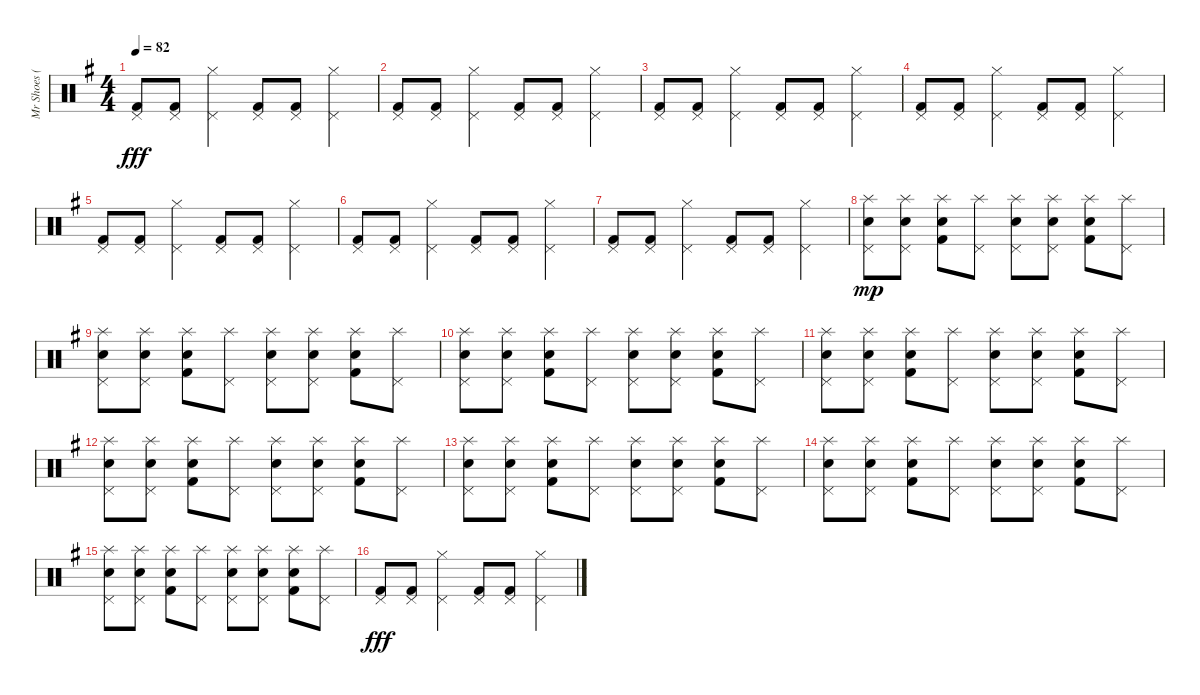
\track ("Mr Shoes (batterie)" "Mr Shoes (") {instrument percussion}
\staff {score}
\articulation defaults
\ts (4 4)
\tempo 82
\clef neutral
\ks g
("Kick (hit) 2" "Pedal Hi-Hat (hit)").8{dy fff} ("Kick (hit) 2" "Pedal Hi-Hat (hit)").8 ("Pedal Hi-Hat (hit)" "Hi-Hat (closed)").4 ("Kick (hit) 2" "Pedal Hi-Hat (hit)").8 ("Kick (hit) 2" "Pedal Hi-Hat (hit)").8 ("Pedal Hi-Hat (hit)" "Hi-Hat (closed)").4 |
("Kick (hit) 2" "Pedal Hi-Hat (hit)").8 ("Kick (hit) 2" "Pedal Hi-Hat (hit)").8 ("Pedal Hi-Hat (hit)" "Hi-Hat (closed)").4 ("Kick (hit) 2" "Pedal Hi-Hat (hit)").8 ("Kick (hit) 2" "Pedal Hi-Hat (hit)").8 ("Pedal Hi-Hat (hit)" "Hi-Hat (closed)").4 |
("Kick (hit) 2" "Pedal Hi-Hat (hit)").8 ("Kick (hit) 2" "Pedal Hi-Hat (hit)").8 ("Pedal Hi-Hat (hit)" "Hi-Hat (closed)").4 ("Kick (hit) 2" "Pedal Hi-Hat (hit)").8 ("Kick (hit) 2" "Pedal Hi-Hat (hit)").8 ("Pedal Hi-Hat (hit)" "Hi-Hat (closed)").4 |
("Kick (hit) 2" "Pedal Hi-Hat (hit)").8 ("Kick (hit) 2" "Pedal Hi-Hat (hit)").8 ("Pedal Hi-Hat (hit)" "Hi-Hat (closed)").4 ("Kick (hit) 2" "Pedal Hi-Hat (hit)").8 ("Kick (hit) 2" "Pedal Hi-Hat (hit)").8 ("Pedal Hi-Hat (hit)" "Hi-Hat (closed)").4 |
("Kick (hit) 2" "Pedal Hi-Hat (hit)").8 ("Kick (hit) 2" "Pedal Hi-Hat (hit)").8 ("Pedal Hi-Hat (hit)" "Hi-Hat (closed)").4 ("Kick (hit) 2" "Pedal Hi-Hat (hit)").8 ("Kick (hit) 2" "Pedal Hi-Hat (hit)").8 ("Pedal Hi-Hat (hit)" "Hi-Hat (closed)").4 |
("Kick (hit) 2" "Pedal Hi-Hat (hit)").8 ("Kick (hit) 2" "Pedal Hi-Hat (hit)").8 ("Pedal Hi-Hat (hit)" "Hi-Hat (closed)").4 ("Kick (hit) 2" "Pedal Hi-Hat (hit)").8 ("Kick (hit) 2" "Pedal Hi-Hat (hit)").8 ("Pedal Hi-Hat (hit)" "Hi-Hat (closed)").4 |
("Kick (hit) 2" "Pedal Hi-Hat (hit)").8 ("Kick (hit) 2" "Pedal Hi-Hat (hit)").8 ("Pedal Hi-Hat (hit)" "Hi-Hat (closed)").4 ("Kick (hit) 2" "Pedal Hi-Hat (hit)").8 ("Kick (hit) 2" "Pedal Hi-Hat (hit)").8 ("Pedal Hi-Hat (hit)" "Hi-Hat (closed)").4 |
("Electric Snare (hit)" "Pedal Hi-Hat (hit)" "Splash (hit)").8{dy mp} ("Electric Snare (hit)" "Pedal Hi-Hat (hit)" "Splash (hit)").8 ("Kick (hit) 2" "Snare (hit) 2" "Splash (hit)").8 ("Pedal Hi-Hat (hit)" "Splash (hit)").8 ("Electric Snare (hit)" "Pedal Hi-Hat (hit)" "Splash (hit)").8 ("Electric Snare (hit)" "Pedal Hi-Hat (hit)" "Splash (hit)").8 ("Kick (hit) 2" "Snare (hit) 2" "Splash (hit)").8 ("Pedal Hi-Hat (hit)" "Splash (hit)").8 |
("Electric Snare (hit)" "Pedal Hi-Hat (hit)" "Splash (hit)").8 ("Electric Snare (hit)" "Pedal Hi-Hat (hit)" "Splash (hit)").8 ("Kick (hit) 2" "Snare (hit) 2" "Splash (hit)").8 ("Pedal Hi-Hat (hit)" "Splash (hit)").8 ("Electric Snare (hit)" "Pedal Hi-Hat (hit)" "Splash (hit)").8 ("Electric Snare (hit)" "Pedal Hi-Hat (hit)" "Splash (hit)").8 ("Kick (hit) 2" "Snare (hit) 2" "Splash (hit)").8 ("Pedal Hi-Hat (hit)" "Splash (hit)").8 |
("Electric Snare (hit)" "Pedal Hi-Hat (hit)" "Splash (hit)").8 ("Electric Snare (hit)" "Pedal Hi-Hat (hit)" "Splash (hit)").8 ("Kick (hit) 2" "Snare (hit) 2" "Splash (hit)").8 ("Pedal Hi-Hat (hit)" "Splash (hit)").8 ("Electric Snare (hit)" "Pedal Hi-Hat (hit)" "Splash (hit)").8 ("Electric Snare (hit)" "Pedal Hi-Hat (hit)" "Splash (hit)").8 ("Kick (hit) 2" "Snare (hit) 2" "Splash (hit)").8 ("Pedal Hi-Hat (hit)" "Splash (hit)").8 |
("Electric Snare (hit)" "Pedal Hi-Hat (hit)" "Splash (hit)").8 ("Electric Snare (hit)" "Pedal Hi-Hat (hit)" "Splash (hit)").8 ("Kick (hit) 2" "Snare (hit) 2" "Splash (hit)").8 ("Pedal Hi-Hat (hit)" "Splash (hit)").8 ("Electric Snare (hit)" "Pedal Hi-Hat (hit)" "Splash (hit)").8 ("Electric Snare (hit)" "Pedal Hi-Hat (hit)" "Splash (hit)").8 ("Kick (hit) 2" "Snare (hit) 2" "Splash (hit)").8 ("Pedal Hi-Hat (hit)" "Splash (hit)").8 |
("Electric Snare (hit)" "Pedal Hi-Hat (hit)" "Splash (hit)").8 ("Electric Snare (hit)" "Pedal Hi-Hat (hit)" "Splash (hit)").8 ("Kick (hit) 2" "Snare (hit) 2" "Splash (hit)").8 ("Pedal Hi-Hat (hit)" "Splash (hit)").8 ("Electric Snare (hit)" "Pedal Hi-Hat (hit)" "Splash (hit)").8 ("Electric Snare (hit)" "Pedal Hi-Hat (hit)" "Splash (hit)").8 ("Kick (hit) 2" "Snare (hit) 2" "Splash (hit)").8 ("Pedal Hi-Hat (hit)" "Splash (hit)").8 |
("Electric Snare (hit)" "Pedal Hi-Hat (hit)" "Splash (hit)").8 ("Electric Snare (hit)" "Pedal Hi-Hat (hit)" "Splash (hit)").8 ("Kick (hit) 2" "Snare (hit) 2" "Splash (hit)").8 ("Pedal Hi-Hat (hit)" "Splash (hit)").8 ("Electric Snare (hit)" "Pedal Hi-Hat (hit)" "Splash (hit)").8 ("Electric Snare (hit)" "Pedal Hi-Hat (hit)" "Splash (hit)").8 ("Kick (hit) 2" "Snare (hit) 2" "Splash (hit)").8 ("Pedal Hi-Hat (hit)" "Splash (hit)").8 |
("Electric Snare (hit)" "Pedal Hi-Hat (hit)" "Splash (hit)").8 ("Electric Snare (hit)" "Pedal Hi-Hat (hit)" "Splash (hit)").8 ("Kick (hit) 2" "Snare (hit) 2" "Splash (hit)").8 ("Pedal Hi-Hat (hit)" "Splash (hit)").8 ("Electric Snare (hit)" "Pedal Hi-Hat (hit)" "Splash (hit)").8 ("Electric Snare (hit)" "Pedal Hi-Hat (hit)" "Splash (hit)").8 ("Kick (hit) 2" "Snare (hit) 2" "Splash (hit)").8 ("Pedal Hi-Hat (hit)" "Splash (hit)").8 |
("Electric Snare (hit)" "Pedal Hi-Hat (hit)" "Splash (hit)").8 ("Electric Snare (hit)" "Pedal Hi-Hat (hit)" "Splash (hit)").8 ("Kick (hit) 2" "Snare (hit) 2" "Splash (hit)").8 ("Pedal Hi-Hat (hit)" "Splash (hit)").8 ("Electric Snare (hit)" "Pedal Hi-Hat (hit)" "Splash (hit)").8 ("Electric Snare (hit)" "Pedal Hi-Hat (hit)" "Splash (hit)").8 ("Kick (hit) 2" "Snare (hit) 2" "Splash (hit)").8 ("Pedal Hi-Hat (hit)" "Splash (hit)").8 |
("Kick (hit) 2" "Pedal Hi-Hat (hit)").8{dy fff} ("Kick (hit) 2" "Pedal Hi-Hat (hit)").8 ("Pedal Hi-Hat (hit)" "Hi-Hat (closed)").4 ("Kick (hit) 2" "Pedal Hi-Hat (hit)").8 ("Kick (hit) 2" "Pedal Hi-Hat (hit)").8 ("Pedal Hi-Hat (hit)" "Hi-Hat (closed)").4
